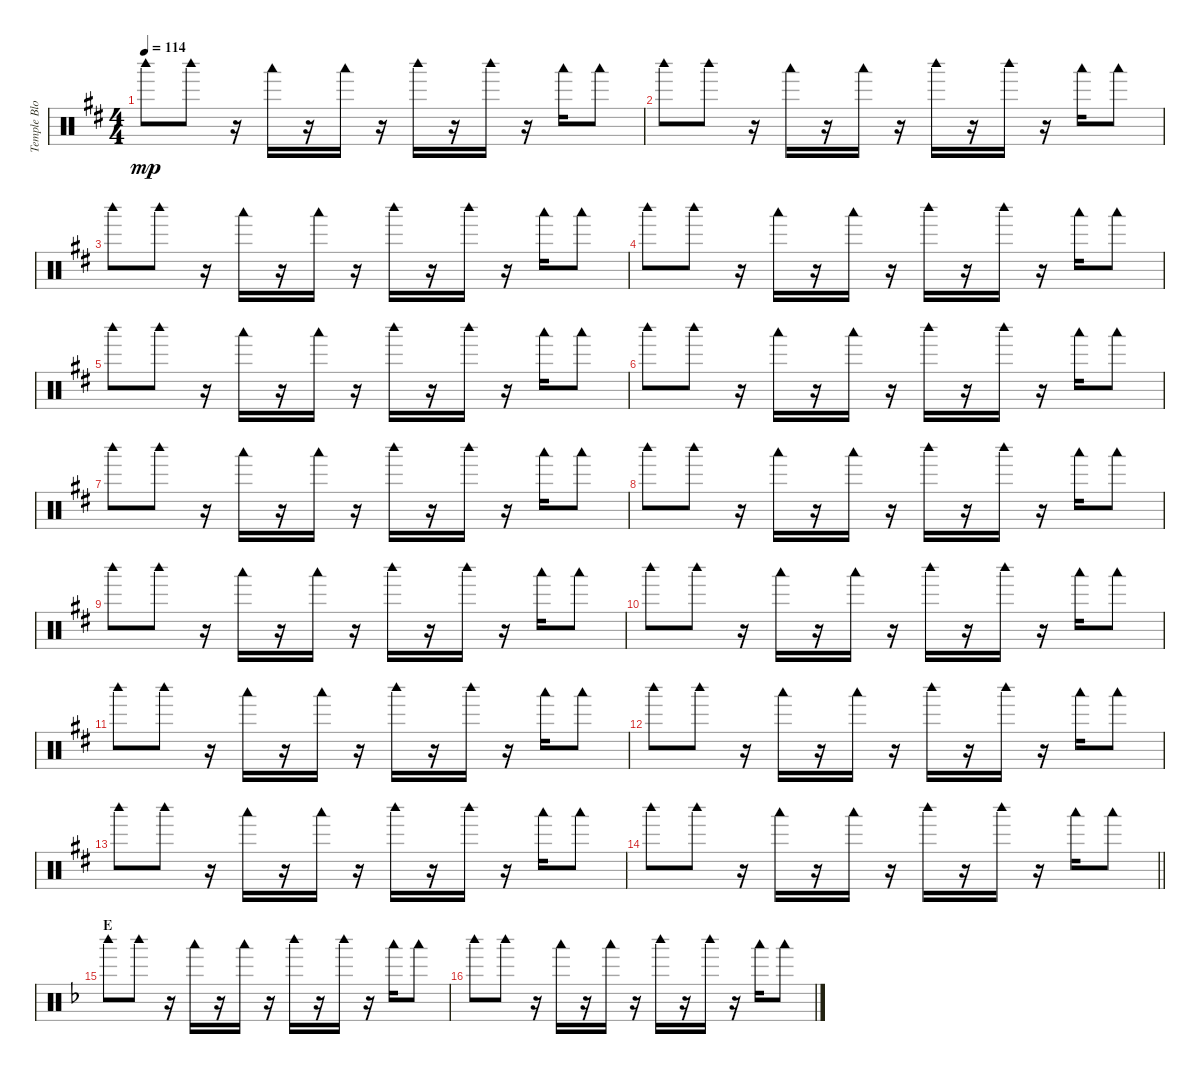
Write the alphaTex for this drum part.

\track ("Temple Block" "Temple Blo") {instrument percussion}
\staff {score}
\articulation defaults
\ts (4 4)
\tempo 114
\clef neutral
\ks d "Woodblock high (hit)".8{dy mp} "Woodblock high (hit)".8
r.16 "Woodblock low (hit)".16 r.16 "Woodblock low (hit)".16 r.16 "Woodblock high (hit)".16 r.16 "Woodblock high (hit)".16 r.16 "Woodblock low (hit)".16 "Woodblock low (hit)".8 |
"Woodblock high (hit)".8 "Woodblock high (hit)".8 r.16 "Woodblock low (hit)".16 r.16 "Woodblock low (hit)".16 r.16 "Woodblock high (hit)".16 r.16 "Woodblock high (hit)".16 r.16 "Woodblock low (hit)".16 "Woodblock low (hit)".8 |
"Woodblock high (hit)".8 "Woodblock high (hit)".8 r.16 "Woodblock low (hit)".16 r.16 "Woodblock low (hit)".16 r.16 "Woodblock high (hit)".16 r.16 "Woodblock high (hit)".16 r.16 "Woodblock low (hit)".16 "Woodblock low (hit)".8 |
"Woodblock high (hit)".8 "Woodblock high (hit)".8 r.16 "Woodblock low (hit)".16 r.16 "Woodblock low (hit)".16 r.16 "Woodblock high (hit)".16 r.16 "Woodblock high (hit)".16 r.16 "Woodblock low (hit)".16 "Woodblock low (hit)".8 |
"Woodblock high (hit)".8 "Woodblock high (hit)".8 r.16 "Woodblock low (hit)".16 r.16 "Woodblock low (hit)".16 r.16 "Woodblock high (hit)".16 r.16 "Woodblock high (hit)".16 r.16 "Woodblock low (hit)".16 "Woodblock low (hit)".8 |
"Woodblock high (hit)".8 "Woodblock high (hit)".8 r.16 "Woodblock low (hit)".16 r.16 "Woodblock low (hit)".16 r.16 "Woodblock high (hit)".16 r.16 "Woodblock high (hit)".16 r.16 "Woodblock low (hit)".16 "Woodblock low (hit)".8 |
"Woodblock high (hit)".8 "Woodblock high (hit)".8 r.16 "Woodblock low (hit)".16 r.16 "Woodblock low (hit)".16 r.16 "Woodblock high (hit)".16 r.16 "Woodblock high (hit)".16 r.16 "Woodblock low (hit)".16 "Woodblock low (hit)".8 |
"Woodblock high (hit)".8 "Woodblock high (hit)".8 r.16 "Woodblock low (hit)".16 r.16 "Woodblock low (hit)".16 r.16 "Woodblock high (hit)".16 r.16 "Woodblock high (hit)".16 r.16 "Woodblock low (hit)".16 "Woodblock low (hit)".8 |
"Woodblock high (hit)".8 "Woodblock high (hit)".8 r.16 "Woodblock low (hit)".16 r.16 "Woodblock low (hit)".16 r.16 "Woodblock high (hit)".16 r.16 "Woodblock high (hit)".16 r.16 "Woodblock low (hit)".16 "Woodblock low (hit)".8 |
"Woodblock high (hit)".8 "Woodblock high (hit)".8 r.16 "Woodblock low (hit)".16 r.16 "Woodblock low (hit)".16 r.16 "Woodblock high (hit)".16 r.16 "Woodblock high (hit)".16 r.16 "Woodblock low (hit)".16 "Woodblock low (hit)".8 |
"Woodblock high (hit)".8 "Woodblock high (hit)".8 r.16 "Woodblock low (hit)".16 r.16 "Woodblock low (hit)".16 r.16 "Woodblock high (hit)".16 r.16 "Woodblock high (hit)".16 r.16 "Woodblock low (hit)".16 "Woodblock low (hit)".8 |
"Woodblock high (hit)".8 "Woodblock high (hit)".8 r.16 "Woodblock low (hit)".16 r.16 "Woodblock low (hit)".16 r.16 "Woodblock high (hit)".16 r.16 "Woodblock high (hit)".16 r.16 "Woodblock low (hit)".16 "Woodblock low (hit)".8 |
"Woodblock high (hit)".8 "Woodblock high (hit)".8 r.16 "Woodblock low (hit)".16 r.16 "Woodblock low (hit)".16 r.16 "Woodblock high (hit)".16 r.16 "Woodblock high (hit)".16 r.16 "Woodblock low (hit)".16 "Woodblock low (hit)".8 |
\barLineRight lightlight "Woodblock high (hit)".8 "Woodblock high (hit)".8
r.16 "Woodblock low (hit)".16 r.16 "Woodblock low (hit)".16 r.16 "Woodblock high (hit)".16 r.16 "Woodblock high (hit)".16 r.16 "Woodblock low (hit)".16 "Woodblock low (hit)".8 |
\section ("" "E")
\ks f "Woodblock high (hit)".8 "Woodblock high (hit)".8
r.16 "Woodblock low (hit)".16 r.16 "Woodblock low (hit)".16 r.16 "Woodblock high (hit)".16 r.16 "Woodblock high (hit)".16 r.16 "Woodblock low (hit)".16 "Woodblock low (hit)".8 |
"Woodblock high (hit)".8 "Woodblock high (hit)".8 r.16 "Woodblock low (hit)".16 r.16 "Woodblock low (hit)".16 r.16 "Woodblock high (hit)".16 r.16 "Woodblock high (hit)".16 r.16 "Woodblock low (hit)".16 "Woodblock low (hit)".8
